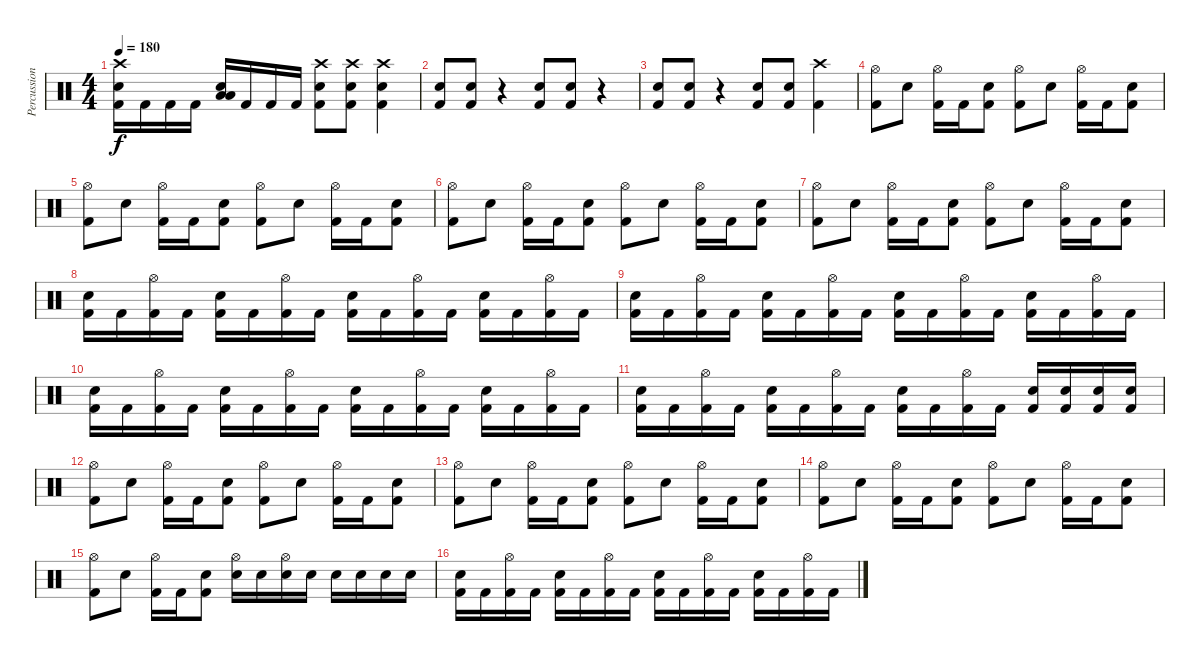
\track ("Percussion" "Percussion") {instrument percussion}
\staff {score}
\articulation defaults
\ts (4 4)
\tempo 180
\clef neutral
\ks c
("Kick (hit) 2" "Snare (hit) 2" "Crash high (hit)").16{dy f} "Kick (hit) 2".16 "Kick (hit) 2".16 "Kick (hit) 2".16 ("Snare (hit) 2" "Low Floor Tom (hit)" "Low Floor Tom (hit)").16 "Kick (hit) 2".16 "Kick (hit) 2".16 "Kick (hit) 2".16 ("Kick (hit) 2" "Snare (hit) 2" "Crash high (hit)").8 ("Kick (hit) 2" "Snare (hit) 2" "Crash high (hit)").8 ("Kick (hit) 2" "Snare (hit) 2" "Crash high (hit)").4 |
("Kick (hit) 2" "Snare (hit) 2").8 ("Kick (hit) 2" "Snare (hit) 2").8 r.4 ("Kick (hit) 2" "Snare (hit) 2").8 ("Kick (hit) 2" "Snare (hit) 2").8 r.4 |
("Kick (hit) 2" "Snare (hit) 2").8 ("Kick (hit) 2" "Snare (hit) 2").8 r.4 ("Kick (hit) 2" "Snare (hit) 2").8 ("Kick (hit) 2" "Snare (hit) 2").8 ("Kick (hit) 2" "Crash high (hit)").4 |
("Kick (hit) 2" "Hi-Hat (open)").8 "Snare (hit) 2".8 ("Kick (hit) 2" "Hi-Hat (open)").16 "Kick (hit) 2".16 ("Kick (hit) 2" "Snare (hit) 2").8 ("Kick (hit) 2" "Hi-Hat (open)").8 "Snare (hit) 2".8 ("Kick (hit) 2" "Hi-Hat (open)").16 "Kick (hit) 2".16 ("Kick (hit) 2" "Snare (hit) 2").8 |
("Kick (hit) 2" "Hi-Hat (open)").8 "Snare (hit) 2".8 ("Kick (hit) 2" "Hi-Hat (open)").16 "Kick (hit) 2".16 ("Kick (hit) 2" "Snare (hit) 2").8 ("Kick (hit) 2" "Hi-Hat (open)").8 "Snare (hit) 2".8 ("Kick (hit) 2" "Hi-Hat (open)").16 "Kick (hit) 2".16 ("Kick (hit) 2" "Snare (hit) 2").8 |
("Kick (hit) 2" "Hi-Hat (open)").8 "Snare (hit) 2".8 ("Kick (hit) 2" "Hi-Hat (open)").16 "Kick (hit) 2".16 ("Kick (hit) 2" "Snare (hit) 2").8 ("Kick (hit) 2" "Hi-Hat (open)").8 "Snare (hit) 2".8 ("Kick (hit) 2" "Hi-Hat (open)").16 "Kick (hit) 2".16 ("Kick (hit) 2" "Snare (hit) 2").8 |
("Kick (hit) 2" "Hi-Hat (open)").8 "Snare (hit) 2".8 ("Kick (hit) 2" "Hi-Hat (open)").16 "Kick (hit) 2".16 ("Kick (hit) 2" "Snare (hit) 2").8 ("Kick (hit) 2" "Hi-Hat (open)").8 "Snare (hit) 2".8 ("Kick (hit) 2" "Hi-Hat (open)").16 "Kick (hit) 2".16 ("Kick (hit) 2" "Snare (hit) 2").8 |
("Kick (hit) 2" "Snare (hit) 2").16 "Kick (hit) 2".16 ("Kick (hit) 2" "Hi-Hat (open)").16 "Kick (hit) 2".16 ("Kick (hit) 2" "Snare (hit) 2").16 "Kick (hit) 2".16 ("Kick (hit) 2" "Hi-Hat (open)").16 "Kick (hit) 2".16 ("Kick (hit) 2" "Snare (hit) 2").16 "Kick (hit) 2".16 ("Kick (hit) 2" "Hi-Hat (open)").16 "Kick (hit) 2".16 ("Kick (hit) 2" "Snare (hit) 2").16 "Kick (hit) 2".16 ("Kick (hit) 2" "Hi-Hat (open)").16 "Kick (hit) 2".16 |
("Kick (hit) 2" "Snare (hit) 2").16 "Kick (hit) 2".16 ("Kick (hit) 2" "Hi-Hat (open)").16 "Kick (hit) 2".16 ("Kick (hit) 2" "Snare (hit) 2").16 "Kick (hit) 2".16 ("Kick (hit) 2" "Hi-Hat (open)").16 "Kick (hit) 2".16 ("Kick (hit) 2" "Snare (hit) 2").16 "Kick (hit) 2".16 ("Kick (hit) 2" "Hi-Hat (open)").16 "Kick (hit) 2".16 ("Kick (hit) 2" "Snare (hit) 2").16 "Kick (hit) 2".16 ("Kick (hit) 2" "Hi-Hat (open)").16 "Kick (hit) 2".16 |
("Kick (hit) 2" "Snare (hit) 2").16 "Kick (hit) 2".16 ("Kick (hit) 2" "Hi-Hat (open)").16 "Kick (hit) 2".16 ("Kick (hit) 2" "Snare (hit) 2").16 "Kick (hit) 2".16 ("Kick (hit) 2" "Hi-Hat (open)").16 "Kick (hit) 2".16 ("Kick (hit) 2" "Snare (hit) 2").16 "Kick (hit) 2".16 ("Kick (hit) 2" "Hi-Hat (open)").16 "Kick (hit) 2".16 ("Kick (hit) 2" "Snare (hit) 2").16 "Kick (hit) 2".16 ("Kick (hit) 2" "Hi-Hat (open)").16 "Kick (hit) 2".16 |
("Kick (hit) 2" "Snare (hit) 2").16 "Kick (hit) 2".16 ("Kick (hit) 2" "Hi-Hat (open)").16 "Kick (hit) 2".16 ("Kick (hit) 2" "Snare (hit) 2").16 "Kick (hit) 2".16 ("Kick (hit) 2" "Hi-Hat (open)").16 "Kick (hit) 2".16 ("Kick (hit) 2" "Snare (hit) 2").16 "Kick (hit) 2".16 ("Kick (hit) 2" "Hi-Hat (open)").16 "Kick (hit) 2".16 ("Kick (hit) 2" "Snare (hit) 2").16 ("Kick (hit) 2" "Snare (hit) 2").16 ("Kick (hit) 2" "Snare (hit) 2").16 ("Kick (hit) 2" "Snare (hit) 2").16 |
("Kick (hit) 2" "Hi-Hat (open)").8 "Snare (hit) 2".8 ("Kick (hit) 2" "Hi-Hat (open)").16 "Kick (hit) 2".16 ("Kick (hit) 2" "Snare (hit) 2").8 ("Kick (hit) 2" "Hi-Hat (open)").8 "Snare (hit) 2".8 ("Kick (hit) 2" "Hi-Hat (open)").16 "Kick (hit) 2".16 ("Kick (hit) 2" "Snare (hit) 2").8 |
("Kick (hit) 2" "Hi-Hat (open)").8 "Snare (hit) 2".8 ("Kick (hit) 2" "Hi-Hat (open)").16 "Kick (hit) 2".16 ("Kick (hit) 2" "Snare (hit) 2").8 ("Kick (hit) 2" "Hi-Hat (open)").8 "Snare (hit) 2".8 ("Kick (hit) 2" "Hi-Hat (open)").16 "Kick (hit) 2".16 ("Kick (hit) 2" "Snare (hit) 2").8 |
("Kick (hit) 2" "Hi-Hat (open)").8 "Snare (hit) 2".8 ("Kick (hit) 2" "Hi-Hat (open)").16 "Kick (hit) 2".16 ("Kick (hit) 2" "Snare (hit) 2").8 ("Kick (hit) 2" "Hi-Hat (open)").8 "Snare (hit) 2".8 ("Kick (hit) 2" "Hi-Hat (open)").16 "Kick (hit) 2".16 ("Kick (hit) 2" "Snare (hit) 2").8 |
("Kick (hit) 2" "Hi-Hat (open)").8 "Snare (hit) 2".8 ("Kick (hit) 2" "Hi-Hat (open)").16 "Kick (hit) 2".16 ("Kick (hit) 2" "Snare (hit) 2").8 ("Snare (hit) 2" "Hi-Hat (open)").16 "Snare (hit) 2".16 ("Snare (hit) 2" "Hi-Hat (open)").16 "Snare (hit) 2".16 "Snare (hit) 2".16 "Snare (hit) 2".16 "Snare (hit) 2".16 "Snare (hit) 2".16 |
("Kick (hit) 2" "Snare (hit) 2").16 "Kick (hit) 2".16 ("Kick (hit) 2" "Hi-Hat (open)").16 "Kick (hit) 2".16 ("Kick (hit) 2" "Snare (hit) 2").16 "Kick (hit) 2".16 ("Kick (hit) 2" "Hi-Hat (open)").16 "Kick (hit) 2".16 ("Kick (hit) 2" "Snare (hit) 2").16 "Kick (hit) 2".16 ("Kick (hit) 2" "Hi-Hat (open)").16 "Kick (hit) 2".16 ("Kick (hit) 2" "Snare (hit) 2").16 "Kick (hit) 2".16 ("Kick (hit) 2" "Hi-Hat (open)").16 "Kick (hit) 2".16
